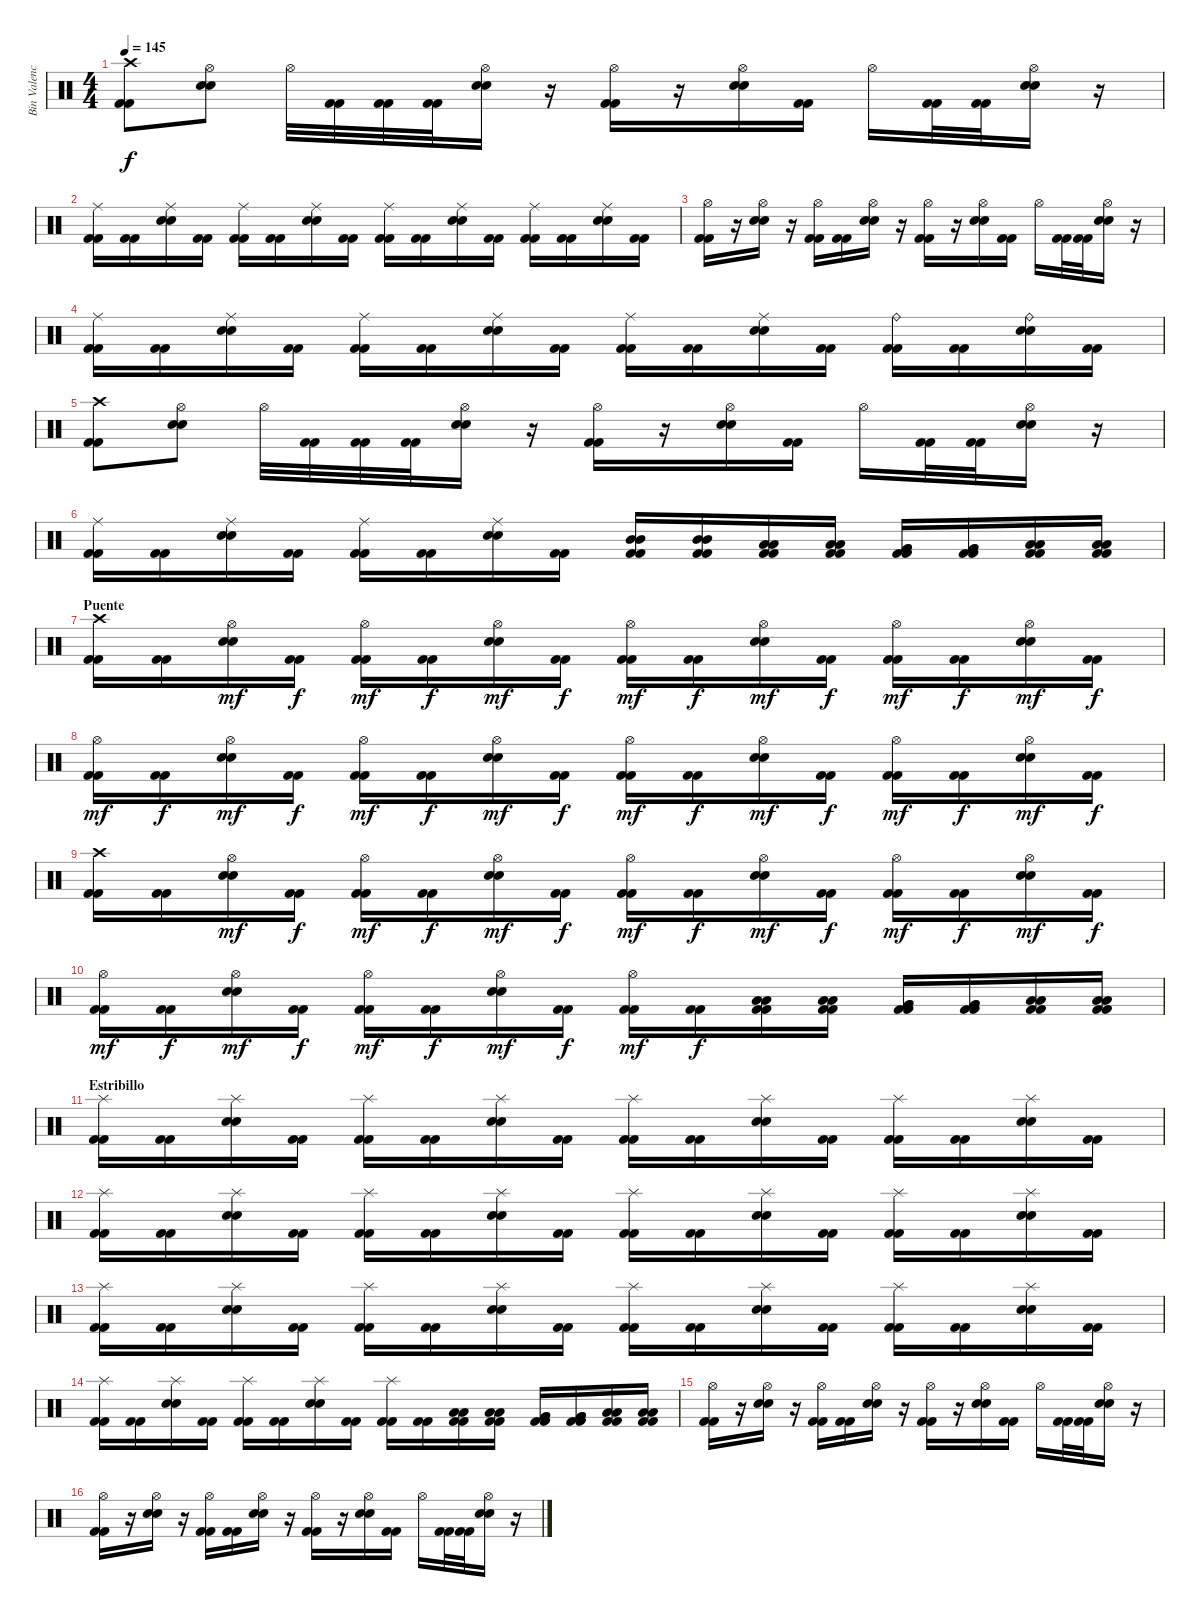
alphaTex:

\track ("Bin Valencia (Bateria)" "Bin Valenc") {instrument percussion}
\staff {score}
\articulation defaults
\ts (4 4)
\tempo 145
\clef neutral
\ks c
("Crash high (hit)" "Kick (hit) 2" "Kick (hit) 2").8{dy f} ("Hi-Hat (open)" "Snare (hit) 2" "Snare (hit) 2").8 "Hi-Hat (open)".32 ("Kick (hit) 2" "Kick (hit) 2").32 ("Kick (hit) 2" "Kick (hit) 2").32 ("Kick (hit) 2" "Kick (hit) 2").32 ("Hi-Hat (open)" "Snare (hit) 2" "Snare (hit) 2").16 r.16 ("Hi-Hat (open)" "Kick (hit) 2" "Kick (hit) 2").16 r.16 ("Hi-Hat (open)" "Snare (hit) 2" "Snare (hit) 2").16 ("Kick (hit) 2" "Kick (hit) 2").16 "Hi-Hat (open)".16 ("Kick (hit) 2" "Kick (hit) 2").32 ("Kick (hit) 2" "Kick (hit) 2").32 ("Hi-Hat (open)" "Snare (hit) 2" "Snare (hit) 2").16 r.16 |
("Ride (middle)" "Kick (hit) 2" "Kick (hit) 2").16 ("Kick (hit) 2" "Kick (hit) 2").16 ("Ride (middle)" "Snare (hit) 2" "Snare (hit) 2").16 ("Kick (hit) 2" "Kick (hit) 2").16 ("Ride (middle)" "Kick (hit) 2" "Kick (hit) 2").16 ("Kick (hit) 2" "Kick (hit) 2").16 ("Ride (middle)" "Snare (hit) 2" "Snare (hit) 2").16 ("Kick (hit) 2" "Kick (hit) 2").16 ("Ride (middle)" "Kick (hit) 2" "Kick (hit) 2").16 ("Kick (hit) 2" "Kick (hit) 2").16 ("Ride (middle)" "Snare (hit) 2" "Snare (hit) 2").16 ("Kick (hit) 2" "Kick (hit) 2").16 ("Ride (middle)" "Kick (hit) 2" "Kick (hit) 2").16 ("Kick (hit) 2" "Kick (hit) 2").16 ("Ride (middle)" "Snare (hit) 2" "Snare (hit) 2").16 ("Kick (hit) 2" "Kick (hit) 2").16 |
("Hi-Hat (open)" "Kick (hit) 2" "Kick (hit) 2").16 r.16 ("Hi-Hat (open)" "Snare (hit) 2" "Snare (hit) 2").16 r.16 ("Hi-Hat (open)" "Kick (hit) 2" "Kick (hit) 2").16 ("Kick (hit) 2" "Kick (hit) 2").16 ("Hi-Hat (open)" "Snare (hit) 2" "Snare (hit) 2").16 r.16 ("Hi-Hat (open)" "Kick (hit) 2" "Kick (hit) 2").16 r.16 ("Hi-Hat (open)" "Snare (hit) 2" "Snare (hit) 2").16 ("Kick (hit) 2" "Kick (hit) 2").16 "Hi-Hat (open)".16 ("Kick (hit) 2" "Kick (hit) 2").32 ("Kick (hit) 2" "Kick (hit) 2").32 ("Hi-Hat (open)" "Snare (hit) 2" "Snare (hit) 2").16 r.16 |
("Ride (middle)" "Kick (hit) 2" "Kick (hit) 2").16 ("Kick (hit) 2" "Kick (hit) 2").16 ("Ride (middle)" "Snare (hit) 2" "Snare (hit) 2").16 ("Kick (hit) 2" "Kick (hit) 2").16 ("Ride (middle)" "Kick (hit) 2" "Kick (hit) 2").16 ("Kick (hit) 2" "Kick (hit) 2").16 ("Ride (middle)" "Snare (hit) 2" "Snare (hit) 2").16 ("Kick (hit) 2" "Kick (hit) 2").16 ("Ride (middle)" "Kick (hit) 2" "Kick (hit) 2").16 ("Kick (hit) 2" "Kick (hit) 2").16 ("Ride (middle)" "Snare (hit) 2" "Snare (hit) 2").16 ("Kick (hit) 2" "Kick (hit) 2").16 ("Ride (bell)" "Kick (hit) 2" "Kick (hit) 2").16 ("Kick (hit) 2" "Kick (hit) 2").16 ("Ride (bell)" "Snare (hit) 2" "Snare (hit) 2").16 ("Kick (hit) 2" "Kick (hit) 2").16 |
("Crash high (hit)" "Kick (hit) 2" "Kick (hit) 2").8 ("Hi-Hat (open)" "Snare (hit) 2" "Snare (hit) 2").8 "Hi-Hat (open)".32 ("Kick (hit) 2" "Kick (hit) 2").32 ("Kick (hit) 2" "Kick (hit) 2").32 ("Kick (hit) 2" "Kick (hit) 2").32 ("Hi-Hat (open)" "Snare (hit) 2" "Snare (hit) 2").16 r.16 ("Hi-Hat (open)" "Kick (hit) 2" "Kick (hit) 2").16 r.16 ("Hi-Hat (open)" "Snare (hit) 2" "Snare (hit) 2").16 ("Kick (hit) 2" "Kick (hit) 2").16 "Hi-Hat (open)".16 ("Kick (hit) 2" "Kick (hit) 2").32 ("Kick (hit) 2" "Kick (hit) 2").32 ("Hi-Hat (open)" "Snare (hit) 2" "Snare (hit) 2").16 r.16 |
("Ride (middle)" "Kick (hit) 2" "Kick (hit) 2").16 ("Kick (hit) 2" "Kick (hit) 2").16 ("Ride (middle)" "Snare (hit) 2" "Snare (hit) 2").16 ("Kick (hit) 2" "Kick (hit) 2").16 ("Ride (middle)" "Kick (hit) 2" "Kick (hit) 2").16 ("Kick (hit) 2" "Kick (hit) 2").16 ("Ride (middle)" "Snare (hit) 2" "Snare (hit) 2").16 ("Kick (hit) 2" "Kick (hit) 2").16 ("Kick (hit) 2" "Kick (hit) 2" "Mid Tom (hit)" "Mid Tom (hit)").16 ("Kick (hit) 2" "Kick (hit) 2" "Mid Tom (hit)" "Mid Tom (hit)").16 ("Kick (hit) 2" "Kick (hit) 2" "Low Tom (hit)" "Low Tom (hit)").16 ("Kick (hit) 2" "Kick (hit) 2" "Low Tom (hit)" "Low Tom (hit)").16 ("Kick (hit) 2" "Kick (hit) 2" "Very Low Tom (hit)" "Very Low Tom (hit)").16 ("Kick (hit) 2" "Kick (hit) 2" "Very Low Tom (hit)" "Very Low Tom (hit)").16 ("Kick (hit) 2" "Kick (hit) 2" "Low Floor Tom (hit)" "Low Floor Tom (hit)").16 ("Kick (hit) 2" "Kick (hit) 2" "Low Floor Tom (hit)" "Low Floor Tom (hit)").16 |
\section ("" "Puente")
("Crash high (hit)" "Kick (hit) 2" "Kick (hit) 2").16 ("Kick (hit) 2" "Kick (hit) 2").16 ("Hi-Hat (open)" "Snare (hit) 2" "Snare (hit) 2").16{dy mf} ("Kick (hit) 2" "Kick (hit) 2").16{dy f} ("Hi-Hat (open)" "Kick (hit) 2" "Kick (hit) 2").16{dy mf} ("Kick (hit) 2" "Kick (hit) 2").16{dy f} ("Hi-Hat (open)" "Snare (hit) 2" "Snare (hit) 2").16{dy mf} ("Kick (hit) 2" "Kick (hit) 2").16{dy f} ("Hi-Hat (open)" "Kick (hit) 2" "Kick (hit) 2").16{dy mf} ("Kick (hit) 2" "Kick (hit) 2").16{dy f} ("Hi-Hat (open)" "Snare (hit) 2" "Snare (hit) 2").16{dy mf} ("Kick (hit) 2" "Kick (hit) 2").16{dy f} ("Hi-Hat (open)" "Kick (hit) 2" "Kick (hit) 2").16{dy mf} ("Kick (hit) 2" "Kick (hit) 2").16{dy f} ("Hi-Hat (open)" "Snare (hit) 2" "Snare (hit) 2").16{dy mf} ("Kick (hit) 2" "Kick (hit) 2").16{dy f} |
("Hi-Hat (open)" "Kick (hit) 2" "Kick (hit) 2").16{dy mf} ("Kick (hit) 2" "Kick (hit) 2").16{dy f} ("Hi-Hat (open)" "Snare (hit) 2" "Snare (hit) 2").16{dy mf} ("Kick (hit) 2" "Kick (hit) 2").16{dy f} ("Hi-Hat (open)" "Kick (hit) 2" "Kick (hit) 2").16{dy mf} ("Kick (hit) 2" "Kick (hit) 2").16{dy f} ("Hi-Hat (open)" "Snare (hit) 2" "Snare (hit) 2").16{dy mf} ("Kick (hit) 2" "Kick (hit) 2").16{dy f} ("Hi-Hat (open)" "Kick (hit) 2" "Kick (hit) 2").16{dy mf} ("Kick (hit) 2" "Kick (hit) 2").16{dy f} ("Hi-Hat (open)" "Snare (hit) 2" "Snare (hit) 2").16{dy mf} ("Kick (hit) 2" "Kick (hit) 2").16{dy f} ("Hi-Hat (open)" "Kick (hit) 2" "Kick (hit) 2").16{dy mf} ("Kick (hit) 2" "Kick (hit) 2").16{dy f} ("Hi-Hat (open)" "Snare (hit) 2" "Snare (hit) 2").16{dy mf} ("Kick (hit) 2" "Kick (hit) 2").16{dy f} |
("Crash high (hit)" "Kick (hit) 2" "Kick (hit) 2").16 ("Kick (hit) 2" "Kick (hit) 2").16 ("Hi-Hat (open)" "Snare (hit) 2" "Snare (hit) 2").16{dy mf} ("Kick (hit) 2" "Kick (hit) 2").16{dy f} ("Hi-Hat (open)" "Kick (hit) 2" "Kick (hit) 2").16{dy mf} ("Kick (hit) 2" "Kick (hit) 2").16{dy f} ("Hi-Hat (open)" "Snare (hit) 2" "Snare (hit) 2").16{dy mf} ("Kick (hit) 2" "Kick (hit) 2").16{dy f} ("Hi-Hat (open)" "Kick (hit) 2" "Kick (hit) 2").16{dy mf} ("Kick (hit) 2" "Kick (hit) 2").16{dy f} ("Hi-Hat (open)" "Snare (hit) 2" "Snare (hit) 2").16{dy mf} ("Kick (hit) 2" "Kick (hit) 2").16{dy f} ("Hi-Hat (open)" "Kick (hit) 2" "Kick (hit) 2").16{dy mf} ("Kick (hit) 2" "Kick (hit) 2").16{dy f} ("Hi-Hat (open)" "Snare (hit) 2" "Snare (hit) 2").16{dy mf} ("Kick (hit) 2" "Kick (hit) 2").16{dy f} |
("Hi-Hat (open)" "Kick (hit) 2" "Kick (hit) 2").16{dy mf} ("Kick (hit) 2" "Kick (hit) 2").16{dy f} ("Hi-Hat (open)" "Snare (hit) 2" "Snare (hit) 2").16{dy mf} ("Kick (hit) 2" "Kick (hit) 2").16{dy f} ("Hi-Hat (open)" "Kick (hit) 2" "Kick (hit) 2").16{dy mf} ("Kick (hit) 2" "Kick (hit) 2").16{dy f} ("Hi-Hat (open)" "Snare (hit) 2" "Snare (hit) 2").16{dy mf} ("Kick (hit) 2" "Kick (hit) 2").16{dy f} ("Hi-Hat (open)" "Kick (hit) 2" "Kick (hit) 2").16{dy mf} ("Kick (hit) 2" "Kick (hit) 2").16{dy f} ("Kick (hit) 2" "Kick (hit) 2" "Low Tom (hit)" "Low Tom (hit)").16 ("Kick (hit) 2" "Kick (hit) 2" "Low Tom (hit)" "Low Tom (hit)").16 ("Kick (hit) 2" "Kick (hit) 2" "Very Low Tom (hit)" "Very Low Tom (hit)").16 ("Kick (hit) 2" "Kick (hit) 2" "Very Low Tom (hit)" "Very Low Tom (hit)").16 ("Kick (hit) 2" "Kick (hit) 2" "Low Floor Tom (hit)" "Low Floor Tom (hit)").16 ("Kick (hit) 2" "Kick (hit) 2" "Low Floor Tom (hit)" "Low Floor Tom (hit)").16 |
\section ("" "Estribillo")
("Splash (hit)" "Kick (hit) 2" "Kick (hit) 2").16 ("Kick (hit) 2" "Kick (hit) 2").16 ("Splash (hit)" "Snare (hit) 2" "Snare (hit) 2").16 ("Kick (hit) 2" "Kick (hit) 2").16 ("Splash (hit)" "Kick (hit) 2" "Kick (hit) 2").16 ("Kick (hit) 2" "Kick (hit) 2").16 ("Splash (hit)" "Snare (hit) 2" "Snare (hit) 2").16 ("Kick (hit) 2" "Kick (hit) 2").16 ("Splash (hit)" "Kick (hit) 2" "Kick (hit) 2").16 ("Kick (hit) 2" "Kick (hit) 2").16 ("Splash (hit)" "Snare (hit) 2" "Snare (hit) 2").16 ("Kick (hit) 2" "Kick (hit) 2").16 ("Splash (hit)" "Kick (hit) 2" "Kick (hit) 2").16 ("Kick (hit) 2" "Kick (hit) 2").16 ("Splash (hit)" "Snare (hit) 2" "Snare (hit) 2").16 ("Kick (hit) 2" "Kick (hit) 2").16 |
("Splash (hit)" "Kick (hit) 2" "Kick (hit) 2").16 ("Kick (hit) 2" "Kick (hit) 2").16 ("Splash (hit)" "Snare (hit) 2" "Snare (hit) 2").16 ("Kick (hit) 2" "Kick (hit) 2").16 ("Splash (hit)" "Kick (hit) 2" "Kick (hit) 2").16 ("Kick (hit) 2" "Kick (hit) 2").16 ("Splash (hit)" "Snare (hit) 2" "Snare (hit) 2").16 ("Kick (hit) 2" "Kick (hit) 2").16 ("Splash (hit)" "Kick (hit) 2" "Kick (hit) 2").16 ("Kick (hit) 2" "Kick (hit) 2").16 ("Splash (hit)" "Snare (hit) 2" "Snare (hit) 2").16 ("Kick (hit) 2" "Kick (hit) 2").16 ("Splash (hit)" "Kick (hit) 2" "Kick (hit) 2").16 ("Kick (hit) 2" "Kick (hit) 2").16 ("Splash (hit)" "Snare (hit) 2" "Snare (hit) 2").16 ("Kick (hit) 2" "Kick (hit) 2").16 |
("Splash (hit)" "Kick (hit) 2" "Kick (hit) 2").16 ("Kick (hit) 2" "Kick (hit) 2").16 ("Splash (hit)" "Snare (hit) 2" "Snare (hit) 2").16 ("Kick (hit) 2" "Kick (hit) 2").16 ("Splash (hit)" "Kick (hit) 2" "Kick (hit) 2").16 ("Kick (hit) 2" "Kick (hit) 2").16 ("Splash (hit)" "Snare (hit) 2" "Snare (hit) 2").16 ("Kick (hit) 2" "Kick (hit) 2").16 ("Splash (hit)" "Kick (hit) 2" "Kick (hit) 2").16 ("Kick (hit) 2" "Kick (hit) 2").16 ("Splash (hit)" "Snare (hit) 2" "Snare (hit) 2").16 ("Kick (hit) 2" "Kick (hit) 2").16 ("Splash (hit)" "Kick (hit) 2" "Kick (hit) 2").16 ("Kick (hit) 2" "Kick (hit) 2").16 ("Splash (hit)" "Snare (hit) 2" "Snare (hit) 2").16 ("Kick (hit) 2" "Kick (hit) 2").16 |
("Splash (hit)" "Kick (hit) 2" "Kick (hit) 2").16 ("Kick (hit) 2" "Kick (hit) 2").16 ("Splash (hit)" "Snare (hit) 2" "Snare (hit) 2").16 ("Kick (hit) 2" "Kick (hit) 2").16 ("Splash (hit)" "Kick (hit) 2" "Kick (hit) 2").16 ("Kick (hit) 2" "Kick (hit) 2").16 ("Splash (hit)" "Snare (hit) 2" "Snare (hit) 2").16 ("Kick (hit) 2" "Kick (hit) 2").16 ("Splash (hit)" "Kick (hit) 2" "Kick (hit) 2").16 ("Kick (hit) 2" "Kick (hit) 2").16 ("Kick (hit) 2" "Kick (hit) 2" "Low Tom (hit)" "Low Tom (hit)").16 ("Kick (hit) 2" "Kick (hit) 2" "Low Tom (hit)" "Low Tom (hit)").16 ("Kick (hit) 2" "Kick (hit) 2" "Very Low Tom (hit)" "Very Low Tom (hit)").16 ("Kick (hit) 2" "Kick (hit) 2" "Very Low Tom (hit)" "Very Low Tom (hit)").16 ("Kick (hit) 2" "Kick (hit) 2" "Low Floor Tom (hit)" "Low Floor Tom (hit)").16 ("Kick (hit) 2" "Kick (hit) 2" "Low Floor Tom (hit)" "Low Floor Tom (hit)").16 |
("Hi-Hat (open)" "Kick (hit) 2" "Kick (hit) 2").16 r.16 ("Hi-Hat (open)" "Snare (hit) 2" "Snare (hit) 2").16 r.16 ("Hi-Hat (open)" "Kick (hit) 2" "Kick (hit) 2").16 ("Kick (hit) 2" "Kick (hit) 2").16 ("Hi-Hat (open)" "Snare (hit) 2" "Snare (hit) 2").16 r.16 ("Hi-Hat (open)" "Kick (hit) 2" "Kick (hit) 2").16 r.16 ("Hi-Hat (open)" "Snare (hit) 2" "Snare (hit) 2").16 ("Kick (hit) 2" "Kick (hit) 2").16 "Hi-Hat (open)".16 ("Kick (hit) 2" "Kick (hit) 2").32 ("Kick (hit) 2" "Kick (hit) 2").32 ("Hi-Hat (open)" "Snare (hit) 2" "Snare (hit) 2").16 r.16 |
("Hi-Hat (open)" "Kick (hit) 2" "Kick (hit) 2").16 r.16 ("Hi-Hat (open)" "Snare (hit) 2" "Snare (hit) 2").16 r.16 ("Hi-Hat (open)" "Kick (hit) 2" "Kick (hit) 2").16 ("Kick (hit) 2" "Kick (hit) 2").16 ("Hi-Hat (open)" "Snare (hit) 2" "Snare (hit) 2").16 r.16 ("Hi-Hat (open)" "Kick (hit) 2" "Kick (hit) 2").16 r.16 ("Hi-Hat (open)" "Snare (hit) 2" "Snare (hit) 2").16 ("Kick (hit) 2" "Kick (hit) 2").16 "Hi-Hat (open)".16 ("Kick (hit) 2" "Kick (hit) 2").32 ("Kick (hit) 2" "Kick (hit) 2").32 ("Hi-Hat (open)" "Snare (hit) 2" "Snare (hit) 2").16 r.16
